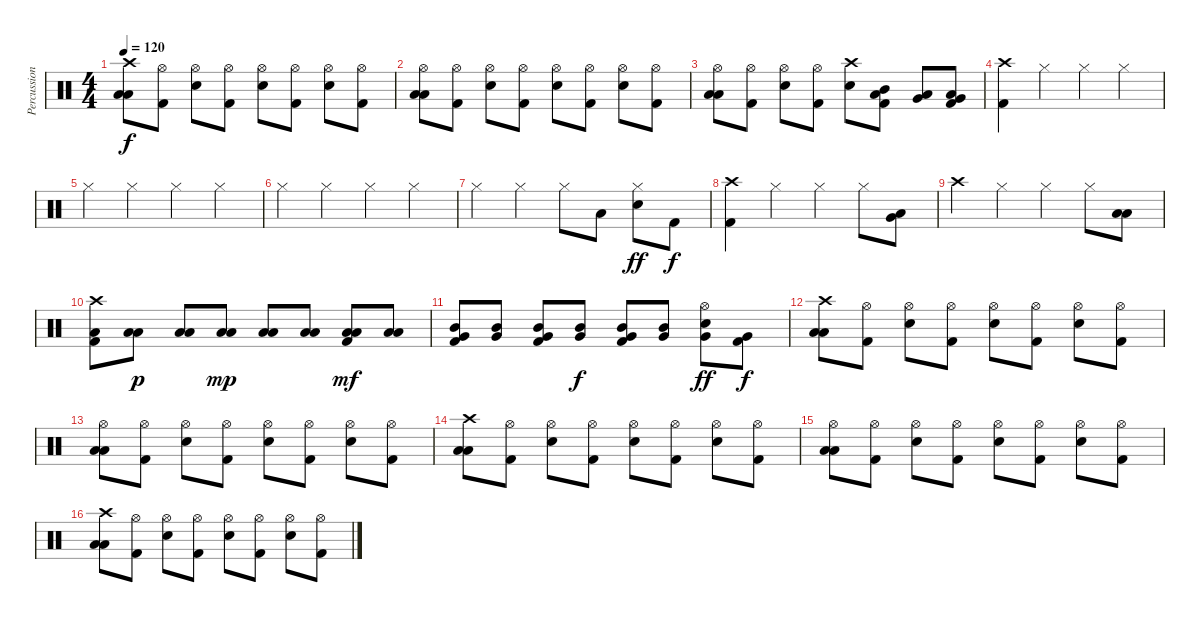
\track ("Percussion" "Percussion") {instrument percussion}
\staff {score}
\articulation defaults
\ts (4 4)
\tempo 120
\clef neutral
\ks c
("Crash high (hit)" "Low Tom (hit)" "Low Floor Tom (hit)").8{dy f} ("Hi-Hat (open)" "Kick (hit) 2").8 ("Hi-Hat (open)" "Electric Snare (hit)").8 ("Hi-Hat (open)" "Kick (hit) 2").8 ("Hi-Hat (open)" "Electric Snare (hit)").8 ("Hi-Hat (open)" "Kick (hit) 2").8 ("Hi-Hat (open)" "Electric Snare (hit)").8 ("Hi-Hat (open)" "Kick (hit) 2").8 |
("Hi-Hat (open)" "Low Tom (hit)" "Low Floor Tom (hit)").8 ("Hi-Hat (open)" "Kick (hit) 2").8 ("Hi-Hat (open)" "Electric Snare (hit)").8 ("Hi-Hat (open)" "Kick (hit) 2").8 ("Hi-Hat (open)" "Electric Snare (hit)").8 ("Hi-Hat (open)" "Kick (hit) 2").8 ("Hi-Hat (open)" "Electric Snare (hit)").8 ("Hi-Hat (open)" "Kick (hit) 2").8 |
("Hi-Hat (open)" "Low Tom (hit)" "Low Floor Tom (hit)").8 ("Hi-Hat (open)" "Kick (hit) 2").8 ("Hi-Hat (open)" "Electric Snare (hit)").8 ("Hi-Hat (open)" "Kick (hit) 2").8 ("Crash high (hit)" "Electric Snare (hit)").8 ("Mid Tom (hit)" "Low Tom (hit)" "Kick (hit) 2").8 ("Low Tom (hit)" "Very Low Tom (hit)").8 ("Very Low Tom (hit)" "Low Floor Tom (hit)" "Kick (hit) 2").8 |
("Crash high (hit)" "Kick (hit) 2").4 "Hi-Hat (closed)".4 "Hi-Hat (closed)".4 "Hi-Hat (closed)".4 |
"Hi-Hat (closed)".4 "Hi-Hat (closed)".4 "Hi-Hat (closed)".4 "Hi-Hat (closed)".4 |
"Hi-Hat (closed)".4 "Hi-Hat (closed)".4 "Hi-Hat (closed)".4 "Hi-Hat (closed)".4 |
"Hi-Hat (closed)".4 "Hi-Hat (closed)".4 "Hi-Hat (closed)".8 "Low Floor Tom (hit)".8 ("Hi-Hat (closed)" "Electric Snare (hit)").8{dy ff} "Kick (hit) 2".8{dy f} |
("Crash high (hit)" "Kick (hit) 2").4 "Hi-Hat (closed)".4 "Hi-Hat (closed)".4 "Hi-Hat (closed)".8 ("Very Low Tom (hit)" "Low Floor Tom (hit)").8 |
"Crash high (hit)".4 "Hi-Hat (closed)".4 "Hi-Hat (closed)".4 "Hi-Hat (closed)".8 ("Low Tom (hit)" "Low Floor Tom (hit)").8 |
("Crash high (hit)" "Low Floor Tom (hit)" "Kick (hit) 2").8 ("Low Tom (hit)" "Low Floor Tom (hit)").8{dy p} ("Low Tom (hit)" "Low Floor Tom (hit)").8 ("Low Tom (hit)" "Low Floor Tom (hit)").8{dy mp} ("Low Tom (hit)" "Low Floor Tom (hit)").8 ("Low Tom (hit)" "Low Floor Tom (hit)").8 ("Low Tom (hit)" "Low Floor Tom (hit)" "Kick (hit) 2").8{dy mf} ("Low Tom (hit)" "Low Floor Tom (hit)").8 |
("Mid Tom (hit)" "Very Low Tom (hit)" "Kick (hit) 2").8 ("Mid Tom (hit)" "Very Low Tom (hit)").8 ("Mid Tom (hit)" "Very Low Tom (hit)" "Kick (hit) 2").8 ("Mid Tom (hit)" "Very Low Tom (hit)").8{dy f} ("Mid Tom (hit)" "Very Low Tom (hit)" "Kick (hit) 2").8 ("Mid Tom (hit)" "Very Low Tom (hit)").8 ("Hi-Hat (open)" "Electric Snare (hit)" "Very Low Tom (hit)").8{dy ff} ("Very Low Tom (hit)" "Kick (hit) 2").8{dy f} |
("Crash high (hit)" "Low Tom (hit)" "Low Floor Tom (hit)").8 ("Hi-Hat (open)" "Kick (hit) 2").8 ("Hi-Hat (open)" "Electric Snare (hit)").8 ("Hi-Hat (open)" "Kick (hit) 2").8 ("Hi-Hat (open)" "Electric Snare (hit)").8 ("Hi-Hat (open)" "Kick (hit) 2").8 ("Hi-Hat (open)" "Electric Snare (hit)").8 ("Hi-Hat (open)" "Kick (hit) 2").8 |
("Hi-Hat (open)" "Low Tom (hit)" "Low Floor Tom (hit)").8 ("Hi-Hat (open)" "Kick (hit) 2").8 ("Hi-Hat (open)" "Electric Snare (hit)").8 ("Hi-Hat (open)" "Kick (hit) 2").8 ("Hi-Hat (open)" "Electric Snare (hit)").8 ("Hi-Hat (open)" "Kick (hit) 2").8 ("Hi-Hat (open)" "Electric Snare (hit)").8 ("Hi-Hat (open)" "Kick (hit) 2").8 |
("Crash high (hit)" "Low Tom (hit)" "Low Floor Tom (hit)").8 ("Hi-Hat (open)" "Kick (hit) 2").8 ("Hi-Hat (open)" "Electric Snare (hit)").8 ("Hi-Hat (open)" "Kick (hit) 2").8 ("Hi-Hat (open)" "Electric Snare (hit)").8 ("Hi-Hat (open)" "Kick (hit) 2").8 ("Hi-Hat (open)" "Electric Snare (hit)").8 ("Hi-Hat (open)" "Kick (hit) 2").8 |
("Hi-Hat (open)" "Low Tom (hit)" "Low Floor Tom (hit)").8 ("Hi-Hat (open)" "Kick (hit) 2").8 ("Hi-Hat (open)" "Electric Snare (hit)").8 ("Hi-Hat (open)" "Kick (hit) 2").8 ("Hi-Hat (open)" "Electric Snare (hit)").8 ("Hi-Hat (open)" "Kick (hit) 2").8 ("Hi-Hat (open)" "Electric Snare (hit)").8 ("Hi-Hat (open)" "Kick (hit) 2").8 |
("Crash high (hit)" "Low Tom (hit)" "Low Floor Tom (hit)").8 ("Hi-Hat (open)" "Kick (hit) 2").8 ("Hi-Hat (open)" "Electric Snare (hit)").8 ("Hi-Hat (open)" "Kick (hit) 2").8 ("Hi-Hat (open)" "Electric Snare (hit)").8 ("Hi-Hat (open)" "Kick (hit) 2").8 ("Hi-Hat (open)" "Electric Snare (hit)").8 ("Hi-Hat (open)" "Kick (hit) 2").8
